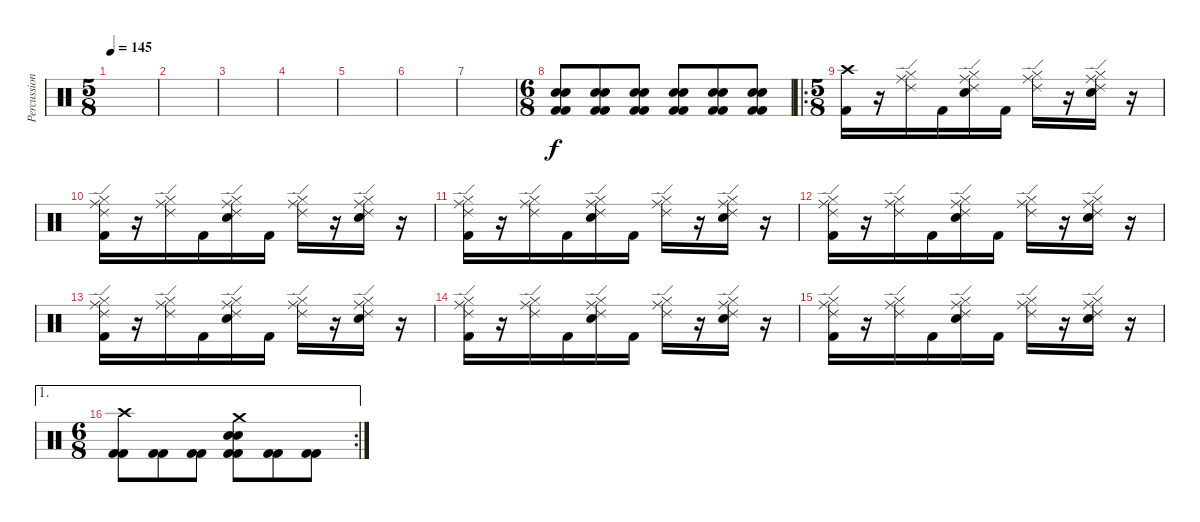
\track ("Percussion" "Percussion") {instrument percussion}
\staff {score}
\articulation defaults
\ts (5 8)
\tempo 145
\clef neutral
\ks c
|
|
|
|
|
|
|
\ts (6 8)
("Electric Snare (hit)" "Electric Snare (hit)" "Kick (hit) 2" "Kick (hit) 2").8 ("Electric Snare (hit)" "Electric Snare (hit)" "Kick (hit) 2" "Kick (hit) 2").8 ("Electric Snare (hit)" "Electric Snare (hit)" "Kick (hit) 2" "Kick (hit) 2").8 ("Electric Snare (hit)" "Electric Snare (hit)" "Kick (hit) 2" "Kick (hit) 2").8 ("Electric Snare (hit)" "Electric Snare (hit)" "Kick (hit) 2" "Kick (hit) 2").8 ("Electric Snare (hit)" "Electric Snare (hit)" "Kick (hit) 2" "Kick (hit) 2").8 |
\ro
\ts (5 8)
("Crash high (hit)" "Kick (hit) 2").16 r.16 ("Ride (middle)" "Ride (edge) 2" "Hi-Hat (closed)").16 "Kick (hit) 2".16 ("Ride (middle)" "Electric Snare (hit)" "Ride (edge) 2" "Hi-Hat (closed)").16 "Kick (hit) 2".16 ("Ride (middle)" "Ride (edge) 2" "Hi-Hat (closed)").16 r.16 ("Ride (middle)" "Electric Snare (hit)" "Ride (edge) 2" "Hi-Hat (closed)").16 r.16 |
("Ride (middle)" "Kick (hit) 2" "Ride (edge) 2" "Hi-Hat (closed)").16 r.16 ("Ride (middle)" "Ride (edge) 2" "Hi-Hat (closed)").16 "Kick (hit) 2".16 ("Ride (middle)" "Electric Snare (hit)" "Ride (edge) 2" "Hi-Hat (closed)").16 "Kick (hit) 2".16 ("Ride (middle)" "Ride (edge) 2" "Hi-Hat (closed)").16 r.16 ("Ride (middle)" "Electric Snare (hit)" "Ride (edge) 2" "Hi-Hat (closed)").16 r.16 |
("Ride (middle)" "Kick (hit) 2" "Ride (edge) 2" "Hi-Hat (closed)").16 r.16 ("Ride (middle)" "Ride (edge) 2" "Hi-Hat (closed)").16 "Kick (hit) 2".16 ("Ride (middle)" "Electric Snare (hit)" "Ride (edge) 2" "Hi-Hat (closed)").16 "Kick (hit) 2".16 ("Ride (middle)" "Ride (edge) 2" "Hi-Hat (closed)").16 r.16 ("Ride (middle)" "Electric Snare (hit)" "Ride (edge) 2" "Hi-Hat (closed)").16 r.16 |
("Ride (middle)" "Kick (hit) 2" "Ride (edge) 2" "Hi-Hat (closed)").16 r.16 ("Ride (middle)" "Ride (edge) 2" "Hi-Hat (closed)").16 "Kick (hit) 2".16 ("Ride (middle)" "Electric Snare (hit)" "Ride (edge) 2" "Hi-Hat (closed)").16 "Kick (hit) 2".16 ("Ride (middle)" "Ride (edge) 2" "Hi-Hat (closed)").16 r.16 ("Ride (middle)" "Electric Snare (hit)" "Ride (edge) 2" "Hi-Hat (closed)").16 r.16 |
("Ride (middle)" "Kick (hit) 2" "Ride (edge) 2" "Hi-Hat (closed)").16 r.16 ("Ride (middle)" "Ride (edge) 2" "Hi-Hat (closed)").16 "Kick (hit) 2".16 ("Ride (middle)" "Electric Snare (hit)" "Ride (edge) 2" "Hi-Hat (closed)").16 "Kick (hit) 2".16 ("Ride (middle)" "Ride (edge) 2" "Hi-Hat (closed)").16 r.16 ("Ride (middle)" "Electric Snare (hit)" "Ride (edge) 2" "Hi-Hat (closed)").16 r.16 |
("Ride (middle)" "Kick (hit) 2" "Ride (edge) 2" "Hi-Hat (closed)").16 r.16 ("Ride (middle)" "Ride (edge) 2" "Hi-Hat (closed)").16 "Kick (hit) 2".16 ("Ride (middle)" "Electric Snare (hit)" "Ride (edge) 2" "Hi-Hat (closed)").16 "Kick (hit) 2".16 ("Ride (middle)" "Ride (edge) 2" "Hi-Hat (closed)").16 r.16 ("Ride (middle)" "Electric Snare (hit)" "Ride (edge) 2" "Hi-Hat (closed)").16 r.16 |
("Ride (middle)" "Kick (hit) 2" "Ride (edge) 2" "Hi-Hat (closed)").16 r.16 ("Ride (middle)" "Ride (edge) 2" "Hi-Hat (closed)").16 "Kick (hit) 2".16 ("Ride (middle)" "Electric Snare (hit)" "Ride (edge) 2" "Hi-Hat (closed)").16 "Kick (hit) 2".16 ("Ride (middle)" "Ride (edge) 2" "Hi-Hat (closed)").16 r.16 ("Ride (middle)" "Electric Snare (hit)" "Ride (edge) 2" "Hi-Hat (closed)").16 r.16 |
\ae 1
\rc 2
\ts (6 8)
("Crash high (hit)" "Kick (hit) 2" "Kick (hit) 2").8 ("Kick (hit) 2" "Kick (hit) 2").8 ("Kick (hit) 2" "Kick (hit) 2").8 ("Crash medium (hit)" "Electric Snare (hit)" "Electric Snare (hit)" "Kick (hit) 2" "Kick (hit) 2").8 ("Kick (hit) 2" "Kick (hit) 2").8 ("Kick (hit) 2" "Kick (hit) 2").8
